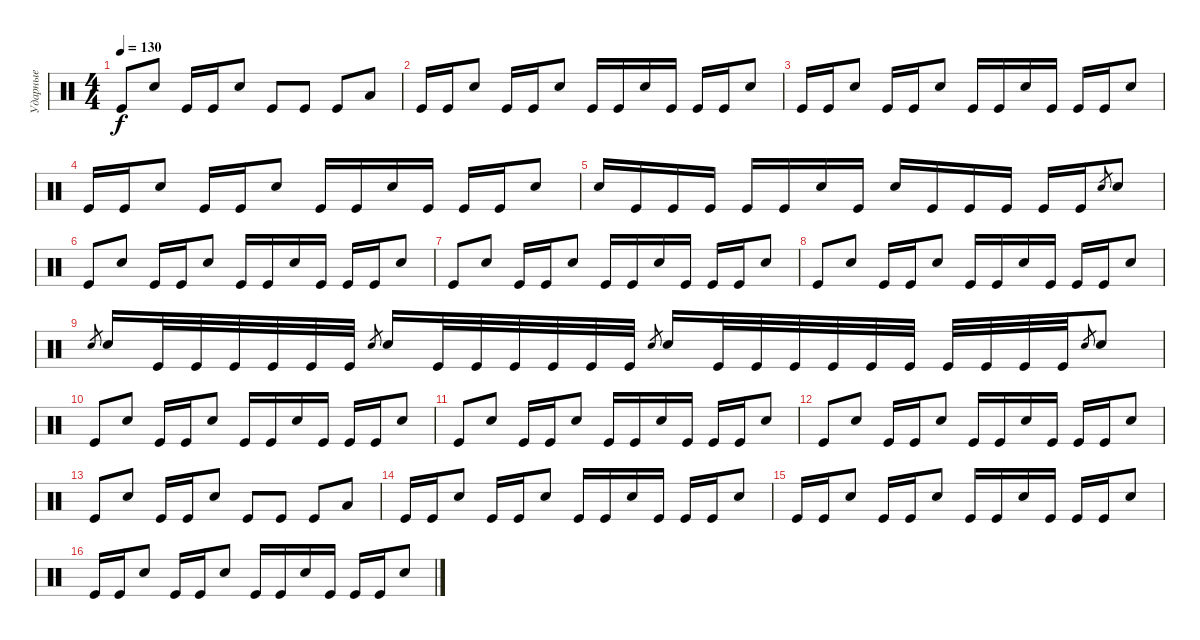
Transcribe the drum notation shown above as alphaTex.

\track ("Ударные" "Ударные") {instrument percussion}
\staff {score}
\articulation defaults
\ts (4 4)
\tempo 130
\clef neutral
\ks c "Kick (hit)".8{dy f} "Snare (hit) 2".8 "Kick (hit)".16 "Kick (hit)".16 "Snare (hit) 2".8 "Kick (hit)".8 "Kick (hit)".8 "Kick (hit)".8 "Low Floor Tom (hit)".8
|
"Kick (hit)".16 "Kick (hit)".16 "Snare (hit) 2".8 "Kick (hit)".16 "Kick (hit)".16 "Snare (hit) 2".8 "Kick (hit)".16 "Kick (hit)".16 "Snare (hit) 2".16 "Kick (hit)".16 "Kick (hit)".16 "Kick (hit)".16 "Snare (hit) 2".8 |
"Kick (hit)".16 "Kick (hit)".16 "Snare (hit) 2".8 "Kick (hit)".16 "Kick (hit)".16 "Snare (hit) 2".8 "Kick (hit)".16 "Kick (hit)".16 "Snare (hit) 2".16 "Kick (hit)".16 "Kick (hit)".16 "Kick (hit)".16 "Snare (hit) 2".8 |
"Kick (hit)".16 "Kick (hit)".16 "Snare (hit) 2".8 "Kick (hit)".16 "Kick (hit)".16 "Snare (hit) 2".8 "Kick (hit)".16 "Kick (hit)".16 "Snare (hit) 2".16 "Kick (hit)".16 "Kick (hit)".16 "Kick (hit)".16 "Snare (hit) 2".8 |
"Snare (hit) 2".16 "Kick (hit)".16 "Kick (hit)".16 "Kick (hit)".16 "Kick (hit)".16 "Kick (hit)".16 "Snare (hit) 2".16 "Kick (hit)".16 "Snare (hit) 2".16 "Kick (hit)".16 "Kick (hit)".16 "Kick (hit)".16 "Kick (hit)".16 "Kick (hit)".16 "Snare (hit) 2".8{gr} "Snare (hit) 2".8 |
"Kick (hit)".8 "Snare (hit) 2".8 "Kick (hit)".16 "Kick (hit)".16 "Snare (hit) 2".8 "Kick (hit)".16 "Kick (hit)".16 "Snare (hit) 2".16 "Kick (hit)".16 "Kick (hit)".16 "Kick (hit)".16 "Snare (hit) 2".8 |
"Kick (hit)".8 "Snare (hit) 2".8 "Kick (hit)".16 "Kick (hit)".16 "Snare (hit) 2".8 "Kick (hit)".16 "Kick (hit)".16 "Snare (hit) 2".16 "Kick (hit)".16 "Kick (hit)".16 "Kick (hit)".16 "Snare (hit) 2".8 |
"Kick (hit)".8 "Snare (hit) 2".8 "Kick (hit)".16 "Kick (hit)".16 "Snare (hit) 2".8 "Kick (hit)".16 "Kick (hit)".16 "Snare (hit) 2".16 "Kick (hit)".16 "Kick (hit)".16 "Kick (hit)".16 "Snare (hit) 2".8 |
"Snare (hit) 2".8{gr} "Snare (hit) 2".16 "Kick (hit)".32 "Kick (hit)".32 "Kick (hit)".32 "Kick (hit)".32 "Kick (hit)".32 "Kick (hit)".32 "Snare (hit) 2".8{gr} "Snare (hit) 2".16 "Kick (hit)".32 "Kick (hit)".32 "Kick (hit)".32 "Kick (hit)".32 "Kick (hit)".32 "Kick (hit)".32 "Snare (hit) 2".8{gr} "Snare (hit) 2".16 "Kick (hit)".32 "Kick (hit)".32 "Kick (hit)".32 "Kick (hit)".32 "Kick (hit)".32 "Kick (hit)".32 "Kick (hit)".32 "Kick (hit)".32 "Kick (hit)".32 "Kick (hit)".32 "Snare (hit) 2".8{gr} "Snare (hit) 2".8 |
"Kick (hit)".8 "Snare (hit) 2".8 "Kick (hit)".16 "Kick (hit)".16 "Snare (hit) 2".8 "Kick (hit)".16 "Kick (hit)".16 "Snare (hit) 2".16 "Kick (hit)".16 "Kick (hit)".16 "Kick (hit)".16 "Snare (hit) 2".8 |
"Kick (hit)".8 "Snare (hit) 2".8 "Kick (hit)".16 "Kick (hit)".16 "Snare (hit) 2".8 "Kick (hit)".16 "Kick (hit)".16 "Snare (hit) 2".16 "Kick (hit)".16 "Kick (hit)".16 "Kick (hit)".16 "Snare (hit) 2".8 |
"Kick (hit)".8 "Snare (hit) 2".8 "Kick (hit)".16 "Kick (hit)".16 "Snare (hit) 2".8 "Kick (hit)".16 "Kick (hit)".16 "Snare (hit) 2".16 "Kick (hit)".16 "Kick (hit)".16 "Kick (hit)".16 "Snare (hit) 2".8 |
"Kick (hit)".8 "Snare (hit) 2".8 "Kick (hit)".16 "Kick (hit)".16 "Snare (hit) 2".8 "Kick (hit)".8 "Kick (hit)".8 "Kick (hit)".8 "Low Floor Tom (hit)".8 |
"Kick (hit)".16 "Kick (hit)".16 "Snare (hit) 2".8 "Kick (hit)".16 "Kick (hit)".16 "Snare (hit) 2".8 "Kick (hit)".16 "Kick (hit)".16 "Snare (hit) 2".16 "Kick (hit)".16 "Kick (hit)".16 "Kick (hit)".16 "Snare (hit) 2".8 |
"Kick (hit)".16 "Kick (hit)".16 "Snare (hit) 2".8 "Kick (hit)".16 "Kick (hit)".16 "Snare (hit) 2".8 "Kick (hit)".16 "Kick (hit)".16 "Snare (hit) 2".16 "Kick (hit)".16 "Kick (hit)".16 "Kick (hit)".16 "Snare (hit) 2".8 |
"Kick (hit)".16 "Kick (hit)".16 "Snare (hit) 2".8 "Kick (hit)".16 "Kick (hit)".16 "Snare (hit) 2".8 "Kick (hit)".16 "Kick (hit)".16 "Snare (hit) 2".16 "Kick (hit)".16 "Kick (hit)".16 "Kick (hit)".16 "Snare (hit) 2".8
